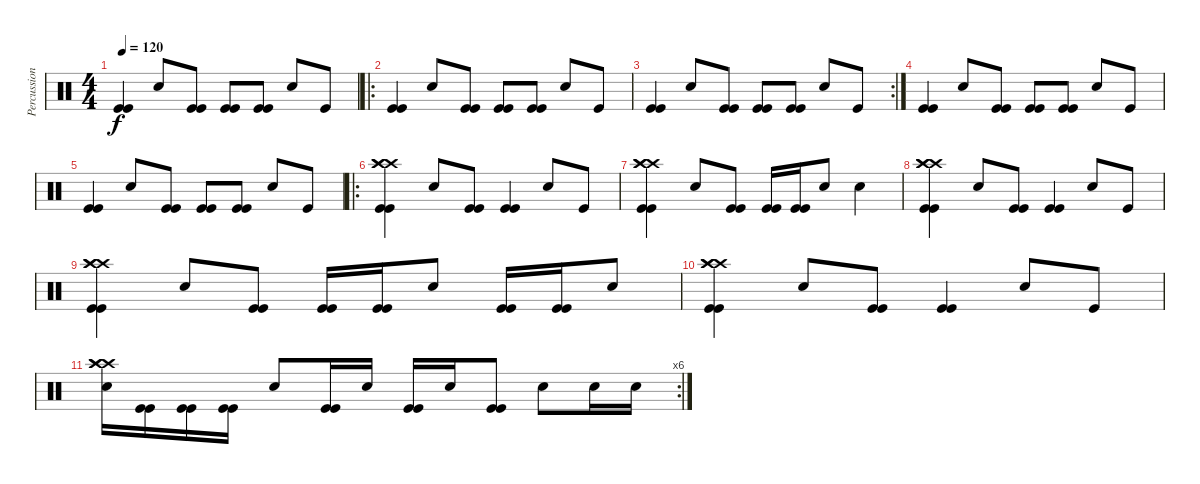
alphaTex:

\track ("Percussion" "Percussion") {instrument percussion}
\staff {score}
\articulation defaults
\ts (4 4)
\tempo 120
\clef neutral
\ks c
("Kick (hit)" "Kick (hit)").4{dy f} "Electric Snare (hit)".8 ("Kick (hit)" "Kick (hit)").8 ("Kick (hit)" "Kick (hit)").8 ("Kick (hit)" "Kick (hit)").8 "Electric Snare (hit)".8 "Kick (hit)".8 |
\ro
("Kick (hit)" "Kick (hit)").4 "Electric Snare (hit)".8 ("Kick (hit)" "Kick (hit)").8 ("Kick (hit)" "Kick (hit)").8 ("Kick (hit)" "Kick (hit)").8 "Electric Snare (hit)".8 "Kick (hit)".8 |
\rc 2
("Kick (hit)" "Kick (hit)").4 "Electric Snare (hit)".8 ("Kick (hit)" "Kick (hit)").8 ("Kick (hit)" "Kick (hit)").8 ("Kick (hit)" "Kick (hit)").8 "Electric Snare (hit)".8 "Kick (hit)".8 |
("Kick (hit)" "Kick (hit)").4 "Electric Snare (hit)".8 ("Kick (hit)" "Kick (hit)").8 ("Kick (hit)" "Kick (hit)").8 ("Kick (hit)" "Kick (hit)").8 "Electric Snare (hit)".8 "Kick (hit)".8 |
("Kick (hit)" "Kick (hit)").4 "Electric Snare (hit)".8 ("Kick (hit)" "Kick (hit)").8 ("Kick (hit)" "Kick (hit)").8 ("Kick (hit)" "Kick (hit)").8 "Electric Snare (hit)".8 "Kick (hit)".8 |
\ro
("Kick (hit)" "Kick (hit)" "Crash high (hit)" "Crash high (hit)" "Crash high (hit)").4 "Electric Snare (hit)".8 ("Kick (hit)" "Kick (hit)").8 ("Kick (hit)" "Kick (hit)").4 "Electric Snare (hit)".8 "Kick (hit)".8 |
("Kick (hit)" "Kick (hit)" "Crash high (hit)" "Crash high (hit)" "Crash high (hit)").4 "Electric Snare (hit)".8 ("Kick (hit)" "Kick (hit)").8 ("Kick (hit)" "Kick (hit)").16 ("Kick (hit)" "Kick (hit)").16 "Electric Snare (hit)".8 "Electric Snare (hit)".4 |
("Kick (hit)" "Kick (hit)" "Crash high (hit)" "Crash high (hit)" "Crash high (hit)").4 "Electric Snare (hit)".8 ("Kick (hit)" "Kick (hit)").8 ("Kick (hit)" "Kick (hit)").4 "Electric Snare (hit)".8 "Kick (hit)".8 |
("Kick (hit)" "Kick (hit)" "Crash high (hit)" "Crash high (hit)" "Crash high (hit)").4 "Electric Snare (hit)".8 ("Kick (hit)" "Kick (hit)").8 ("Kick (hit)" "Kick (hit)").16 ("Kick (hit)" "Kick (hit)").16 "Electric Snare (hit)".8 ("Kick (hit)" "Kick (hit)").16 ("Kick (hit)" "Kick (hit)").16 "Electric Snare (hit)".8 |
("Kick (hit)" "Kick (hit)" "Crash high (hit)" "Crash high (hit)" "Crash high (hit)").4 "Electric Snare (hit)".8 ("Kick (hit)" "Kick (hit)").8 ("Kick (hit)" "Kick (hit)").4 "Electric Snare (hit)".8 "Kick (hit)".8 |
\rc 6
("Electric Snare (hit)" "Crash high (hit)" "Crash high (hit)" "Crash high (hit)").16 ("Kick (hit)" "Kick (hit)").16 ("Kick (hit)" "Kick (hit)").16 ("Kick (hit)" "Kick (hit)").16 "Electric Snare (hit)".8 ("Kick (hit)" "Kick (hit)").16 "Electric Snare (hit)".16 ("Kick (hit)" "Kick (hit)").16 "Electric Snare (hit)".16 ("Kick (hit)" "Kick (hit)").8 "Electric Snare (hit)".8 "Electric Snare (hit)".16 "Electric Snare (hit)".16
